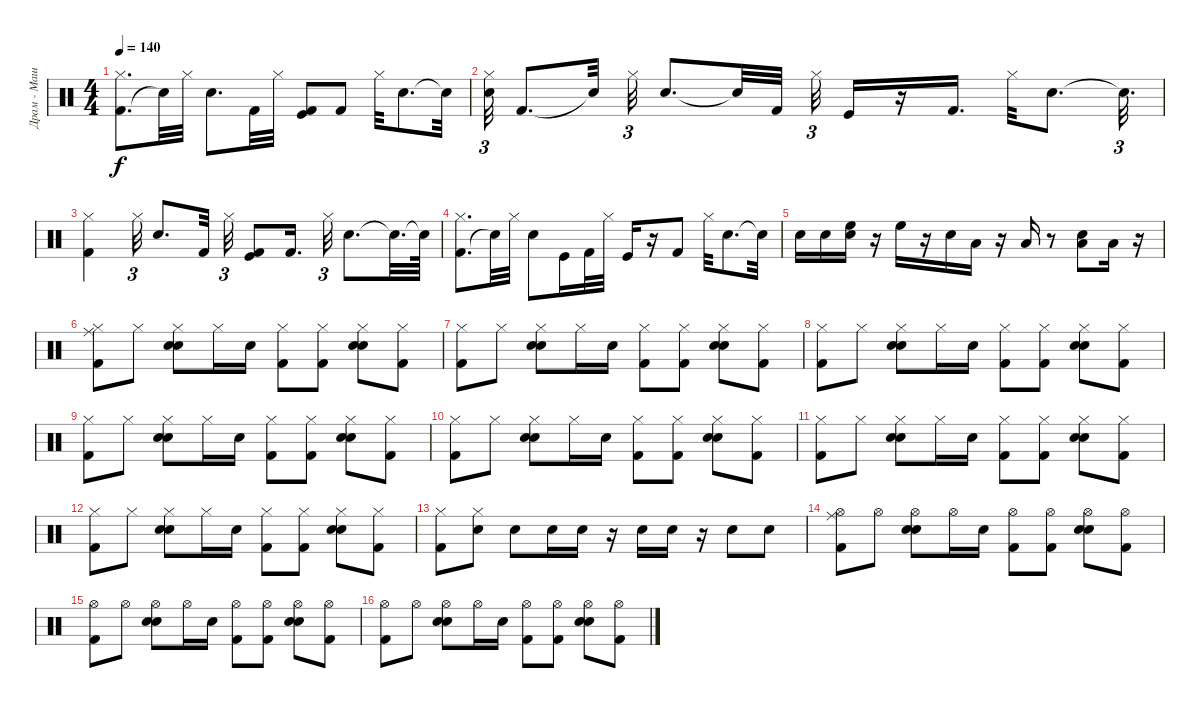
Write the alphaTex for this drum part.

\track ("Драм - Машина" "Драм - Маш") {instrument percussion}
\staff {score}
\articulation defaults
\ts (4 4)
\tempo 140
\clef neutral
\ks c
("Kick (hit) 2" "Hi-Hat (closed)").8{d dy f} "Snare (hit)"{t}.32 "Hi-Hat (closed)".32 "Electric Snare (hit)".8{d} "Kick (hit) 2".32 "Hi-Hat (closed)".32 ("Kick (hit) 2" "Kick (hit)").8 "Kick (hit) 2".8 "Hi-Hat (closed)".32 "Electric Snare (hit)".8{d} "Snare (hit)"{t}.32 |
("Electric Snare (hit)" "Hi-Hat (closed)").32{tu (3 2)} "Kick (hit) 2".8{d} "Snare (hit)"{t}.32 "Hi-Hat (closed)".32{tu (3 2)} "Electric Snare (hit)".8{d} "Snare (hit)"{t}.32 "Kick (hit) 2".32 "Hi-Hat (closed)".32{tu (3 2)} "Kick (hit)".16 r.16 "Kick (hit) 2".16{d} "Hi-Hat (closed)".32 "Electric Snare (hit)".8{d} "Snare (hit)"{t}.32{d tu (3 2)} |
("Kick (hit) 2" "Hi-Hat (closed)").4 "Hi-Hat (closed)".32{tu (3 2)} "Electric Snare (hit)".8{d} "Kick (hit) 2".32 "Hi-Hat (closed)".32{tu (3 2)} ("Kick (hit) 2" "Kick (hit)").8 "Kick (hit) 2".16{d} "Hi-Hat (closed)".32{tu (3 2)} "Electric Snare (hit)".8{d} "Snare (hit)"{t}.32{d} "Snare (hit)"{t}.64 |
("Kick (hit) 2" "Hi-Hat (closed)").8{d} "Snare (hit)"{t}.32 "Hi-Hat (closed)".32 "Electric Snare (hit)".8 "Kick (hit)".16 "Kick (hit) 2".32 "Hi-Hat (closed)".32 "Kick (hit)".16 r.16 "Kick (hit) 2".8 "Hi-Hat (closed)".32 "Electric Snare (hit)".8{d} "Snare (hit)"{t}.32 |
"Snare (hit) 2".16 "Snare (hit) 2".16 ("Snare (hit) 2" "High Floor Tom (hit)").16 r.16 "High Floor Tom (hit)".16 r.16 "Snare (hit) 2".16 "Low Tom (hit)".16 r.16 "Low Tom (hit)".16 r.8 ("Snare (hit) 2" "Low Floor Tom (hit)").8 "Low Floor Tom (hit)".16 r.16 |
("Kick (hit) 2" "Ride (middle)" "Hi-Hat (closed)").8 "Hi-Hat (closed)".8 ("Hand Clap (hit)" "Snare (hit) 2" "Hi-Hat (closed)").8 "Hi-Hat (closed)".16 "Snare (hit) 2".16 ("Kick (hit) 2" "Hi-Hat (closed)").8 ("Hi-Hat (closed)" "Kick (hit) 2").8 ("Hand Clap (hit)" "Snare (hit) 2" "Hi-Hat (closed)").8 ("Hi-Hat (closed)" "Kick (hit) 2").8 |
("Kick (hit) 2" "Hi-Hat (closed)").8 "Hi-Hat (closed)".8 ("Hand Clap (hit)" "Snare (hit) 2" "Hi-Hat (closed)").8 "Hi-Hat (closed)".16 "Snare (hit) 2".16 ("Kick (hit) 2" "Hi-Hat (closed)").8 ("Hi-Hat (closed)" "Kick (hit) 2").8 ("Hand Clap (hit)" "Snare (hit) 2" "Hi-Hat (closed)").8 ("Hi-Hat (closed)" "Kick (hit) 2").8 |
("Kick (hit) 2" "Hi-Hat (closed)").8 "Hi-Hat (closed)".8 ("Hand Clap (hit)" "Snare (hit) 2" "Hi-Hat (closed)").8 "Hi-Hat (closed)".16 "Snare (hit) 2".16 ("Kick (hit) 2" "Hi-Hat (closed)").8 ("Hi-Hat (closed)" "Kick (hit) 2").8 ("Hand Clap (hit)" "Snare (hit) 2" "Hi-Hat (closed)").8 ("Hi-Hat (closed)" "Kick (hit) 2").8 |
("Kick (hit) 2" "Hi-Hat (closed)").8 "Hi-Hat (closed)".8 ("Hand Clap (hit)" "Snare (hit) 2" "Hi-Hat (closed)").8 "Hi-Hat (closed)".16 "Snare (hit) 2".16 ("Kick (hit) 2" "Hi-Hat (closed)").8 ("Hi-Hat (closed)" "Kick (hit) 2").8 ("Hand Clap (hit)" "Snare (hit) 2" "Hi-Hat (closed)").8 ("Hi-Hat (closed)" "Kick (hit) 2").8 |
("Kick (hit) 2" "Hi-Hat (closed)").8 "Hi-Hat (closed)".8 ("Hand Clap (hit)" "Snare (hit) 2" "Hi-Hat (closed)").8 "Hi-Hat (closed)".16 "Snare (hit) 2".16 ("Kick (hit) 2" "Hi-Hat (closed)").8 ("Hi-Hat (closed)" "Kick (hit) 2").8 ("Hand Clap (hit)" "Snare (hit) 2" "Hi-Hat (closed)").8 ("Hi-Hat (closed)" "Kick (hit) 2").8 |
("Kick (hit) 2" "Hi-Hat (closed)").8 "Hi-Hat (closed)".8 ("Hand Clap (hit)" "Snare (hit) 2" "Hi-Hat (closed)").8 "Hi-Hat (closed)".16 "Snare (hit) 2".16 ("Kick (hit) 2" "Hi-Hat (closed)").8 ("Hi-Hat (closed)" "Kick (hit) 2").8 ("Hand Clap (hit)" "Snare (hit) 2" "Hi-Hat (closed)").8 ("Hi-Hat (closed)" "Kick (hit) 2").8 |
("Kick (hit) 2" "Hi-Hat (closed)").8 "Hi-Hat (closed)".8 ("Hand Clap (hit)" "Snare (hit) 2" "Hi-Hat (closed)").8 "Hi-Hat (closed)".16 "Snare (hit) 2".16 ("Kick (hit) 2" "Hi-Hat (closed)").8 ("Hi-Hat (closed)" "Kick (hit) 2").8 ("Hand Clap (hit)" "Snare (hit) 2" "Hi-Hat (closed)").8 ("Hi-Hat (closed)" "Kick (hit) 2").8 |
("Kick (hit) 2" "Hi-Hat (closed)").8 ("Hi-Hat (closed)" "Electric Snare (hit)").8 "Electric Snare (hit)".8 "Snare (hit) 2".16 "Electric Snare (hit)".16 r.16 "Electric Snare (hit)".16 "Snare (hit) 2".16 r.16 "Electric Snare (hit)".8 "Electric Snare (hit)".8 |
("Kick (hit) 2" "Ride (middle)" "Hi-Hat (open)").8 "Hi-Hat (open)".8 ("Hand Clap (hit)" "Snare (hit) 2" "Hi-Hat (open)").8 "Hi-Hat (open)".16 "Snare (hit) 2".16 ("Kick (hit) 2" "Hi-Hat (open)").8 ("Hi-Hat (open)" "Kick (hit) 2").8 ("Hand Clap (hit)" "Snare (hit) 2" "Hi-Hat (open)").8 ("Hi-Hat (open)" "Kick (hit) 2").8 |
("Kick (hit) 2" "Hi-Hat (open)").8 "Hi-Hat (open)".8 ("Hand Clap (hit)" "Snare (hit) 2" "Hi-Hat (open)").8 "Hi-Hat (open)".16 "Snare (hit) 2".16 ("Kick (hit) 2" "Hi-Hat (open)").8 ("Hi-Hat (open)" "Kick (hit) 2").8 ("Hand Clap (hit)" "Snare (hit) 2" "Hi-Hat (open)").8 ("Hi-Hat (open)" "Kick (hit) 2").8 |
("Kick (hit) 2" "Hi-Hat (open)").8 "Hi-Hat (open)".8 ("Hand Clap (hit)" "Snare (hit) 2" "Hi-Hat (open)").8 "Hi-Hat (open)".16 "Snare (hit) 2".16 ("Kick (hit) 2" "Hi-Hat (open)").8 ("Hi-Hat (open)" "Kick (hit) 2").8 ("Hand Clap (hit)" "Snare (hit) 2" "Hi-Hat (open)").8 ("Hi-Hat (open)" "Kick (hit) 2").8
